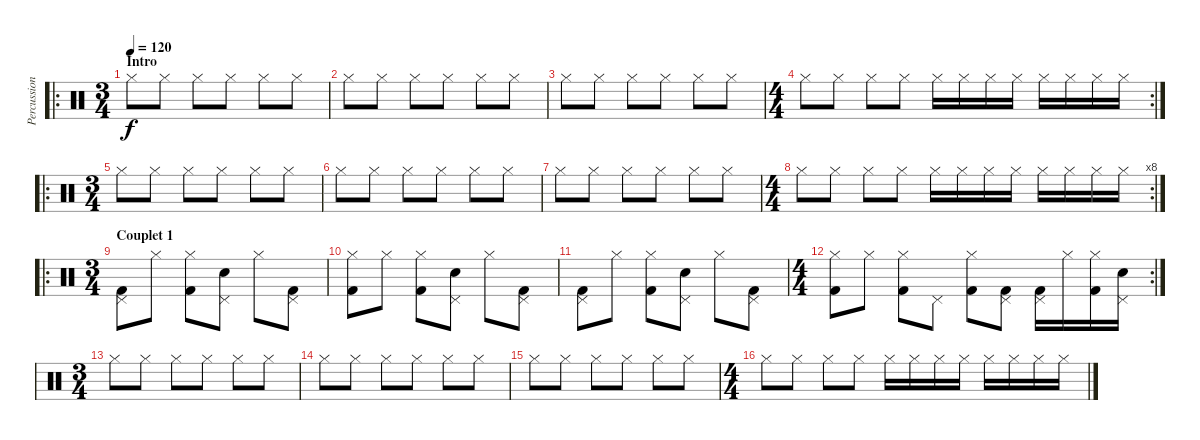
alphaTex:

\track ("Percussions" "Percussion") {instrument percussion}
\staff {score}
\articulation defaults
\ro
\ts (3 4)
\section ("" "Intro")
\tempo 120
\clef neutral
\ks c "Hi-Hat (closed)".8{dy f} "Hi-Hat (closed)".8 "Hi-Hat (closed)".8 "Hi-Hat (closed)".8 "Hi-Hat (closed)".8 "Hi-Hat (closed)".8
|
"Hi-Hat (closed)".8 "Hi-Hat (closed)".8 "Hi-Hat (closed)".8 "Hi-Hat (closed)".8 "Hi-Hat (closed)".8 "Hi-Hat (closed)".8 |
"Hi-Hat (closed)".8 "Hi-Hat (closed)".8 "Hi-Hat (closed)".8 "Hi-Hat (closed)".8 "Hi-Hat (closed)".8 "Hi-Hat (closed)".8 |
\rc 2
\ts (4 4)
"Hi-Hat (closed)".8 "Hi-Hat (closed)".8 "Hi-Hat (closed)".8 "Hi-Hat (closed)".8 "Hi-Hat (closed)".16 "Hi-Hat (closed)".16 "Hi-Hat (closed)".16 "Hi-Hat (closed)".16 "Hi-Hat (closed)".16 "Hi-Hat (closed)".16 "Hi-Hat (closed)".16 "Hi-Hat (closed)".16 |
\ro
\ts (3 4)
"Hi-Hat (closed)".8 "Hi-Hat (closed)".8 "Hi-Hat (closed)".8 "Hi-Hat (closed)".8 "Hi-Hat (closed)".8 "Hi-Hat (closed)".8 |
"Hi-Hat (closed)".8 "Hi-Hat (closed)".8 "Hi-Hat (closed)".8 "Hi-Hat (closed)".8 "Hi-Hat (closed)".8 "Hi-Hat (closed)".8 |
"Hi-Hat (closed)".8 "Hi-Hat (closed)".8 "Hi-Hat (closed)".8 "Hi-Hat (closed)".8 "Hi-Hat (closed)".8 "Hi-Hat (closed)".8 |
\rc 8
\ts (4 4)
"Hi-Hat (closed)".8 "Hi-Hat (closed)".8 "Hi-Hat (closed)".8 "Hi-Hat (closed)".8 "Hi-Hat (closed)".16 "Hi-Hat (closed)".16 "Hi-Hat (closed)".16 "Hi-Hat (closed)".16 "Hi-Hat (closed)".16 "Hi-Hat (closed)".16 "Hi-Hat (closed)".16 "Hi-Hat (closed)".16 |
\ro
\ts (3 4)
\section ("" "Couplet 1")
("Kick (hit) 2" "Pedal Hi-Hat (hit)").8 "Hi-Hat (closed)".8 ("Kick (hit) 2" "Hi-Hat (closed)").8 ("Snare (hit) 2" "Pedal Hi-Hat (hit)").8 "Hi-Hat (closed)".8 ("Kick (hit) 2" "Pedal Hi-Hat (hit)").8 |
("Kick (hit) 2" "Hi-Hat (closed)").8 "Hi-Hat (closed)".8 ("Kick (hit) 2" "Hi-Hat (closed)").8 ("Snare (hit) 2" "Pedal Hi-Hat (hit)").8 "Hi-Hat (closed)".8 ("Kick (hit) 2" "Pedal Hi-Hat (hit)").8 |
("Kick (hit) 2" "Pedal Hi-Hat (hit)").8 "Hi-Hat (closed)".8 ("Kick (hit) 2" "Hi-Hat (closed)").8 ("Snare (hit) 2" "Pedal Hi-Hat (hit)").8 "Hi-Hat (closed)".8 ("Kick (hit) 2" "Pedal Hi-Hat (hit)").8 |
\rc 2
\ts (4 4)
("Kick (hit) 2" "Hi-Hat (closed)").8 "Hi-Hat (closed)".8 ("Kick (hit) 2" "Hi-Hat (closed)").8 "Pedal Hi-Hat (hit)".8 ("Kick (hit) 2" "Hi-Hat (closed)").8 ("Kick (hit) 2" "Pedal Hi-Hat (hit)").8 ("Kick (hit) 2" "Pedal Hi-Hat (hit)").16 "Hi-Hat (closed)".16 ("Kick (hit) 2" "Hi-Hat (closed)").16 ("Snare (hit) 2" "Pedal Hi-Hat (hit)").16 |
\ts (3 4)
"Hi-Hat (closed)".8 "Hi-Hat (closed)".8 "Hi-Hat (closed)".8 "Hi-Hat (closed)".8 "Hi-Hat (closed)".8 "Hi-Hat (closed)".8 |
"Hi-Hat (closed)".8 "Hi-Hat (closed)".8 "Hi-Hat (closed)".8 "Hi-Hat (closed)".8 "Hi-Hat (closed)".8 "Hi-Hat (closed)".8 |
"Hi-Hat (closed)".8 "Hi-Hat (closed)".8 "Hi-Hat (closed)".8 "Hi-Hat (closed)".8 "Hi-Hat (closed)".8 "Hi-Hat (closed)".8 |
\ts (4 4)
"Hi-Hat (closed)".8 "Hi-Hat (closed)".8 "Hi-Hat (closed)".8 "Hi-Hat (closed)".8 "Hi-Hat (closed)".16 "Hi-Hat (closed)".16 "Hi-Hat (closed)".16 "Hi-Hat (closed)".16 "Hi-Hat (closed)".16 "Hi-Hat (closed)".16 "Hi-Hat (closed)".16 "Hi-Hat (closed)".16
